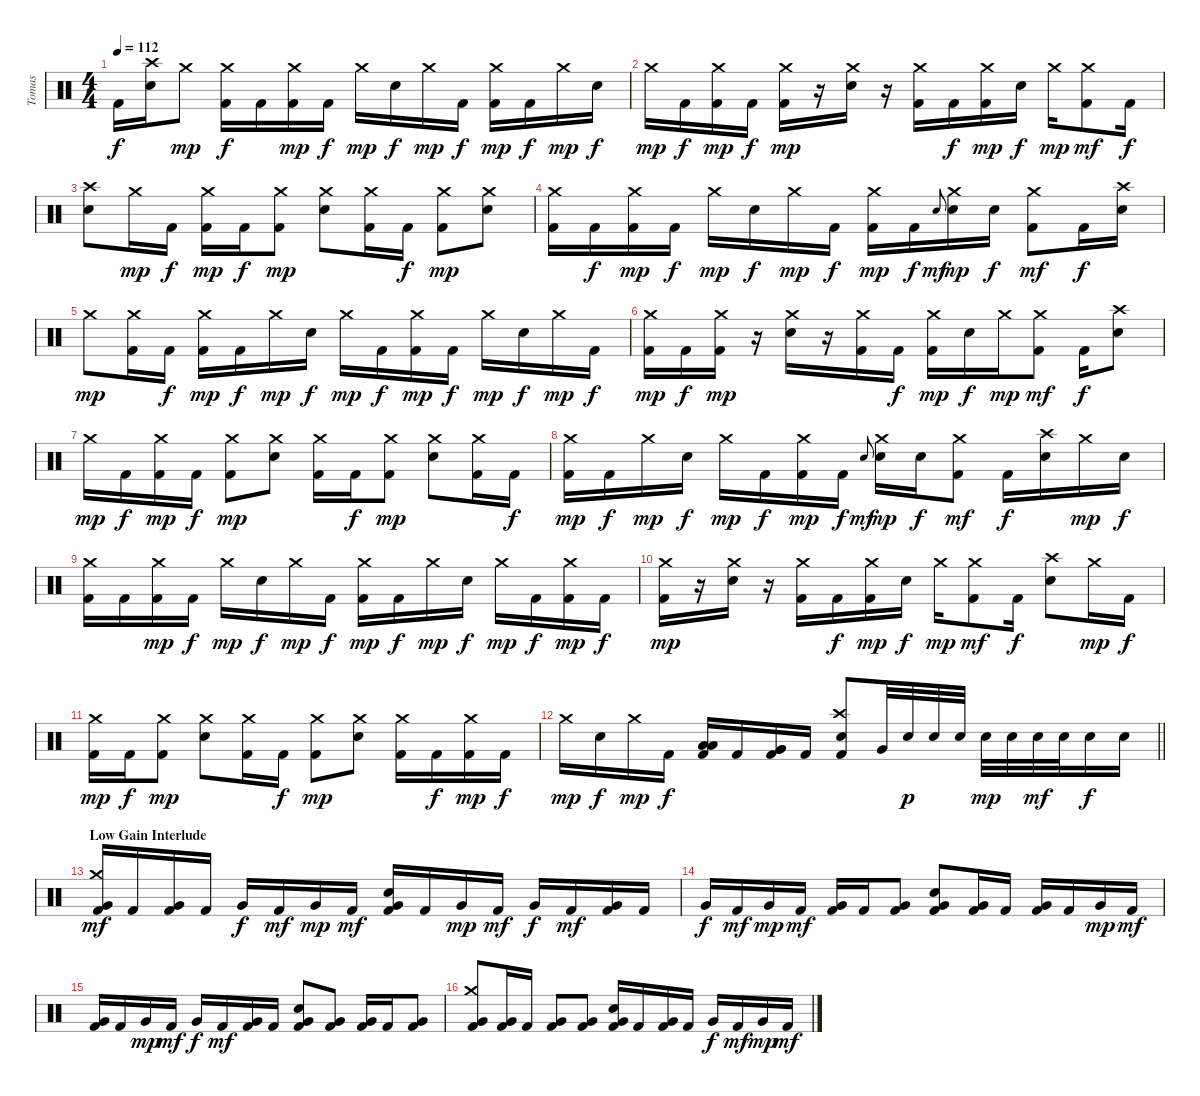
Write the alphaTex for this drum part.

\track ("Tomas" "Tomas") {instrument percussion}
\staff {score}
\articulation defaults
\ts (4 4)
\tempo 112
\clef neutral
\ks c "Kick (hit) 2".16{dy f}
("Crash high (hit)" "Electric Snare (hit)").16 "Crash medium (hit)".8{dy mp} ("Crash medium (hit)" "Kick (hit) 2").16{dy f} "Kick (hit) 2".16 ("Crash medium (hit)" "Kick (hit) 2").16{dy mp} "Kick (hit) 2".16{dy f} "Crash medium (hit)".16{dy mp} "Electric Snare (hit)".16{dy f} "Crash medium (hit)".16{dy mp} "Kick (hit) 2".16{dy f} ("Crash medium (hit)" "Kick (hit) 2").16{dy mp} "Kick (hit) 2".16{dy f} "Crash medium (hit)".16{dy mp} "Electric Snare (hit)".16{dy f} |
"Crash medium (hit)".16{dy mp} "Kick (hit) 2".16{dy f} ("Crash medium (hit)" "Kick (hit) 2").16{dy mp} "Kick (hit) 2".16{dy f} ("Crash medium (hit)" "Kick (hit) 2").16{dy mp} r.16 ("Crash medium (hit)" "Electric Snare (hit)").16 r.16 ("Crash medium (hit)" "Kick (hit) 2").16 "Kick (hit) 2".16{dy f} ("Crash medium (hit)" "Kick (hit) 2").16{dy mp} "Electric Snare (hit)".16{dy f} "Crash medium (hit)".16{dy mp} ("Crash medium (hit)" "Kick (hit) 2").8{dy mf} "Kick (hit) 2".16{dy f} |
("Crash high (hit)" "Electric Snare (hit)").8 "Crash medium (hit)".16{dy mp} "Kick (hit) 2".16{dy f} ("Crash medium (hit)" "Kick (hit) 2").16{dy mp} "Kick (hit) 2".16{dy f} ("Crash medium (hit)" "Kick (hit) 2").8{dy mp} ("Crash medium (hit)" "Electric Snare (hit)").8 ("Crash medium (hit)" "Kick (hit) 2").16 "Kick (hit) 2".16{dy f} ("Crash medium (hit)" "Kick (hit) 2").8{dy mp} ("Crash medium (hit)" "Electric Snare (hit)").8 |
("Crash medium (hit)" "Kick (hit) 2").16 "Kick (hit) 2".16{dy f} ("Crash medium (hit)" "Kick (hit) 2").16{dy mp} "Kick (hit) 2".16{dy f} "Crash medium (hit)".16{dy mp} "Electric Snare (hit)".16{dy f} "Crash medium (hit)".16{dy mp} "Kick (hit) 2".16{dy f} ("Crash medium (hit)" "Kick (hit) 2").16{dy mp} "Kick (hit) 2".16{dy f} "Electric Snare (hit)".8{gr onbeat dy mf} ("Crash medium (hit)" "Electric Snare (hit)").16{dy mp} "Electric Snare (hit)".16{dy f} ("Crash medium (hit)" "Kick (hit) 2").8{dy mf} "Kick (hit) 2".16{dy f} ("Crash high (hit)" "Electric Snare (hit)").16 |
"Crash medium (hit)".8{dy mp} ("Crash medium (hit)" "Kick (hit) 2").16 "Kick (hit) 2".16{dy f} ("Crash medium (hit)" "Kick (hit) 2").16{dy mp} "Kick (hit) 2".16{dy f} "Crash medium (hit)".16{dy mp} "Electric Snare (hit)".16{dy f} "Crash medium (hit)".16{dy mp} "Kick (hit) 2".16{dy f} ("Crash medium (hit)" "Kick (hit) 2").16{dy mp} "Kick (hit) 2".16{dy f} "Crash medium (hit)".16{dy mp} "Electric Snare (hit)".16{dy f} "Crash medium (hit)".16{dy mp} "Kick (hit) 2".16{dy f} |
("Crash medium (hit)" "Kick (hit) 2").16{dy mp} "Kick (hit) 2".16{dy f} ("Crash medium (hit)" "Kick (hit) 2").16{dy mp} r.16 ("Crash medium (hit)" "Electric Snare (hit)").16 r.16 ("Crash medium (hit)" "Kick (hit) 2").16 "Kick (hit) 2".16{dy f} ("Crash medium (hit)" "Kick (hit) 2").16{dy mp} "Electric Snare (hit)".16{dy f} "Crash medium (hit)".16{dy mp} ("Crash medium (hit)" "Kick (hit) 2").8{dy mf} "Kick (hit) 2".16{dy f} ("Crash high (hit)" "Electric Snare (hit)").8 |
"Crash medium (hit)".16{dy mp} "Kick (hit) 2".16{dy f} ("Crash medium (hit)" "Kick (hit) 2").16{dy mp} "Kick (hit) 2".16{dy f} ("Crash medium (hit)" "Kick (hit) 2").8{dy mp} ("Crash medium (hit)" "Electric Snare (hit)").8 ("Crash medium (hit)" "Kick (hit) 2").16 "Kick (hit) 2".16{dy f} ("Crash medium (hit)" "Kick (hit) 2").8{dy mp} ("Crash medium (hit)" "Electric Snare (hit)").8 ("Crash medium (hit)" "Kick (hit) 2").16 "Kick (hit) 2".16{dy f} |
("Crash medium (hit)" "Kick (hit) 2").16{dy mp} "Kick (hit) 2".16{dy f} "Crash medium (hit)".16{dy mp} "Electric Snare (hit)".16{dy f} "Crash medium (hit)".16{dy mp} "Kick (hit) 2".16{dy f} ("Crash medium (hit)" "Kick (hit) 2").16{dy mp} "Kick (hit) 2".16{dy f} "Electric Snare (hit)".8{gr onbeat dy mf} ("Crash medium (hit)" "Electric Snare (hit)").16{dy mp} "Electric Snare (hit)".16{dy f} ("Crash medium (hit)" "Kick (hit) 2").8{dy mf} "Kick (hit) 2".16{dy f} ("Crash high (hit)" "Electric Snare (hit)").16 "Crash medium (hit)".16{dy mp} "Electric Snare (hit)".16{dy f} |
("Crash medium (hit)" "Kick (hit) 2").16 "Kick (hit) 2".16 ("Crash medium (hit)" "Kick (hit) 2").16{dy mp} "Kick (hit) 2".16{dy f} "Crash medium (hit)".16{dy mp} "Electric Snare (hit)".16{dy f} "Crash medium (hit)".16{dy mp} "Kick (hit) 2".16{dy f} ("Crash medium (hit)" "Kick (hit) 2").16{dy mp} "Kick (hit) 2".16{dy f} "Crash medium (hit)".16{dy mp} "Electric Snare (hit)".16{dy f} "Crash medium (hit)".16{dy mp} "Kick (hit) 2".16{dy f} ("Crash medium (hit)" "Kick (hit) 2").16{dy mp} "Kick (hit) 2".16{dy f} |
("Crash medium (hit)" "Kick (hit) 2").16{dy mp} r.16 ("Crash medium (hit)" "Electric Snare (hit)").16 r.16 ("Crash medium (hit)" "Kick (hit) 2").16 "Kick (hit) 2".16{dy f} ("Crash medium (hit)" "Kick (hit) 2").16{dy mp} "Electric Snare (hit)".16{dy f} "Crash medium (hit)".16{dy mp} ("Crash medium (hit)" "Kick (hit) 2").8{dy mf} "Kick (hit) 2".16{dy f} ("Crash high (hit)" "Electric Snare (hit)").8 "Crash medium (hit)".16{dy mp} "Kick (hit) 2".16{dy f} |
("Crash medium (hit)" "Kick (hit) 2").16{dy mp} "Kick (hit) 2".16{dy f} ("Crash medium (hit)" "Kick (hit) 2").8{dy mp} ("Crash medium (hit)" "Electric Snare (hit)").8 ("Crash medium (hit)" "Kick (hit) 2").16 "Kick (hit) 2".16{dy f} ("Crash medium (hit)" "Kick (hit) 2").8{dy mp} ("Crash medium (hit)" "Electric Snare (hit)").8 ("Crash medium (hit)" "Kick (hit) 2").16 "Kick (hit) 2".16{dy f} ("Crash medium (hit)" "Kick (hit) 2").16{dy mp} "Kick (hit) 2".16{dy f} |
\barLineRight lightlight "Crash medium (hit)".16{dy mp} "Electric Snare (hit)".16{dy f} "Crash medium (hit)".16{dy mp} "Kick (hit) 2".16{dy f}
("Low Tom (hit)" "Low Tom (hit)" "Kick (hit) 2").16 "Kick (hit) 2".16 ("Very Low Tom (hit)" "Very Low Tom (hit)" "Kick (hit) 2").16 "Kick (hit) 2".16 ("Crash high (hit)" "Electric Snare (hit)" "Kick (hit) 2").8 "Very Low Tom (hit)".32 "Electric Snare (hit)".32{dy p} "Electric Snare (hit)".32 "Electric Snare (hit)".32 "Electric Snare (hit)".32{dy mp} "Electric Snare (hit)".32 "Electric Snare (hit)".32{dy mf} "Electric Snare (hit)".32 "Electric Snare (hit)".16{dy f} "Electric Snare (hit)".16 |
\section ("" "Low Gain Interlude")
("Crash medium (hit)" "Very Low Tom (hit)" "Kick (hit) 2").16{dy mf} "Kick (hit) 2".16 ("Very Low Tom (hit)" "Kick (hit) 2").16 "Kick (hit) 2".16 "Very Low Tom (hit)".16{dy f} "Kick (hit) 2".16{dy mf} "Very Low Tom (hit)".16{dy mp} "Kick (hit) 2".16{dy mf} ("Electric Snare (hit)" "Very Low Tom (hit)" "Kick (hit) 2").16 "Kick (hit) 2".16 "Very Low Tom (hit)".16{dy mp} "Kick (hit) 2".16{dy mf} "Very Low Tom (hit)".16{dy f} "Kick (hit) 2".16{dy mf} ("Very Low Tom (hit)" "Kick (hit) 2").16 "Kick (hit) 2".16 |
"Very Low Tom (hit)".16{dy f} "Kick (hit) 2".16{dy mf} "Very Low Tom (hit)".16{dy mp} "Kick (hit) 2".16{dy mf} ("Very Low Tom (hit)" "Kick (hit) 2").16 "Kick (hit) 2".16 ("Very Low Tom (hit)" "Kick (hit) 2").8 ("Electric Snare (hit)" "Very Low Tom (hit)" "Kick (hit) 2").8 ("Very Low Tom (hit)" "Kick (hit) 2").16 "Kick (hit) 2".16 ("Very Low Tom (hit)" "Kick (hit) 2").16 "Kick (hit) 2".16 "Very Low Tom (hit)".16{dy mp} "Kick (hit) 2".16{dy mf} |
("Very Low Tom (hit)" "Kick (hit) 2").16 "Kick (hit) 2".16 "Very Low Tom (hit)".16{dy mp} "Kick (hit) 2".16{dy mf} "Very Low Tom (hit)".16{dy f} "Kick (hit) 2".16{dy mf} ("Very Low Tom (hit)" "Kick (hit) 2").16 "Kick (hit) 2".16 ("Electric Snare (hit)" "Very Low Tom (hit)" "Kick (hit) 2").8 ("Very Low Tom (hit)" "Kick (hit) 2").8 ("Very Low Tom (hit)" "Kick (hit) 2").16 "Kick (hit) 2".16 ("Very Low Tom (hit)" "Kick (hit) 2").8 |
("Crash medium (hit)" "Very Low Tom (hit)" "Kick (hit) 2").8 ("Very Low Tom (hit)" "Kick (hit) 2").16 "Kick (hit) 2".16 ("Very Low Tom (hit)" "Kick (hit) 2").8 ("Very Low Tom (hit)" "Kick (hit) 2").8 ("Electric Snare (hit)" "Very Low Tom (hit)" "Kick (hit) 2").16 "Kick (hit) 2".16 ("Very Low Tom (hit)" "Kick (hit) 2").16 "Kick (hit) 2".16 "Very Low Tom (hit)".16{dy f} "Kick (hit) 2".16{dy mf} "Very Low Tom (hit)".16{dy mp} "Kick (hit) 2".16{dy mf}
